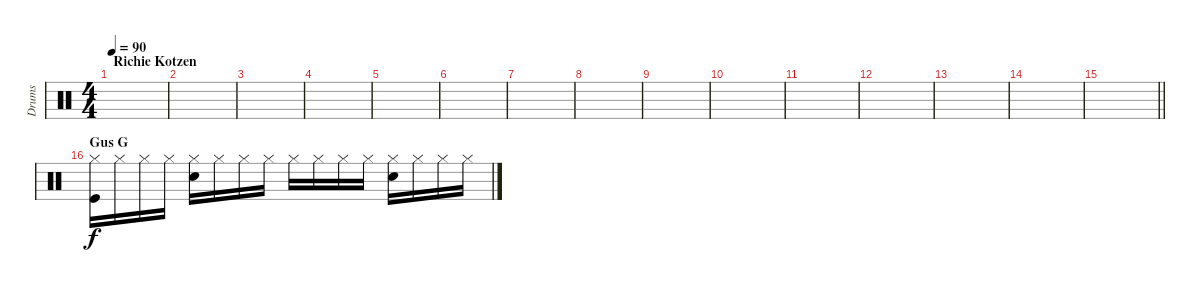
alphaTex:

\track ("Drums" "Drums") {instrument percussion}
\staff {score}
\articulation defaults
\ts (4 4)
\section ("" "Richie Kotzen")
\tempo 90
\clef neutral
\ks c
|
|
|
|
|
|
|
|
|
|
|
|
|
|
\barLineRight lightlight
|
\section ("" "Gus G")
("Hi-Hat (closed)" "Kick (hit)").16 "Hi-Hat (closed)".16 "Hi-Hat (closed)".16 "Hi-Hat (closed)".16 ("Hi-Hat (closed)" "Snare (hit) 2").16 "Hi-Hat (closed)".16 "Hi-Hat (closed)".16 "Hi-Hat (closed)".16 "Hi-Hat (closed)".16 "Hi-Hat (closed)".16 "Hi-Hat (closed)".16 "Hi-Hat (closed)".16 ("Hi-Hat (closed)" "Snare (hit) 2").16 "Hi-Hat (closed)".16 "Hi-Hat (closed)".16 "Hi-Hat (closed)".16
